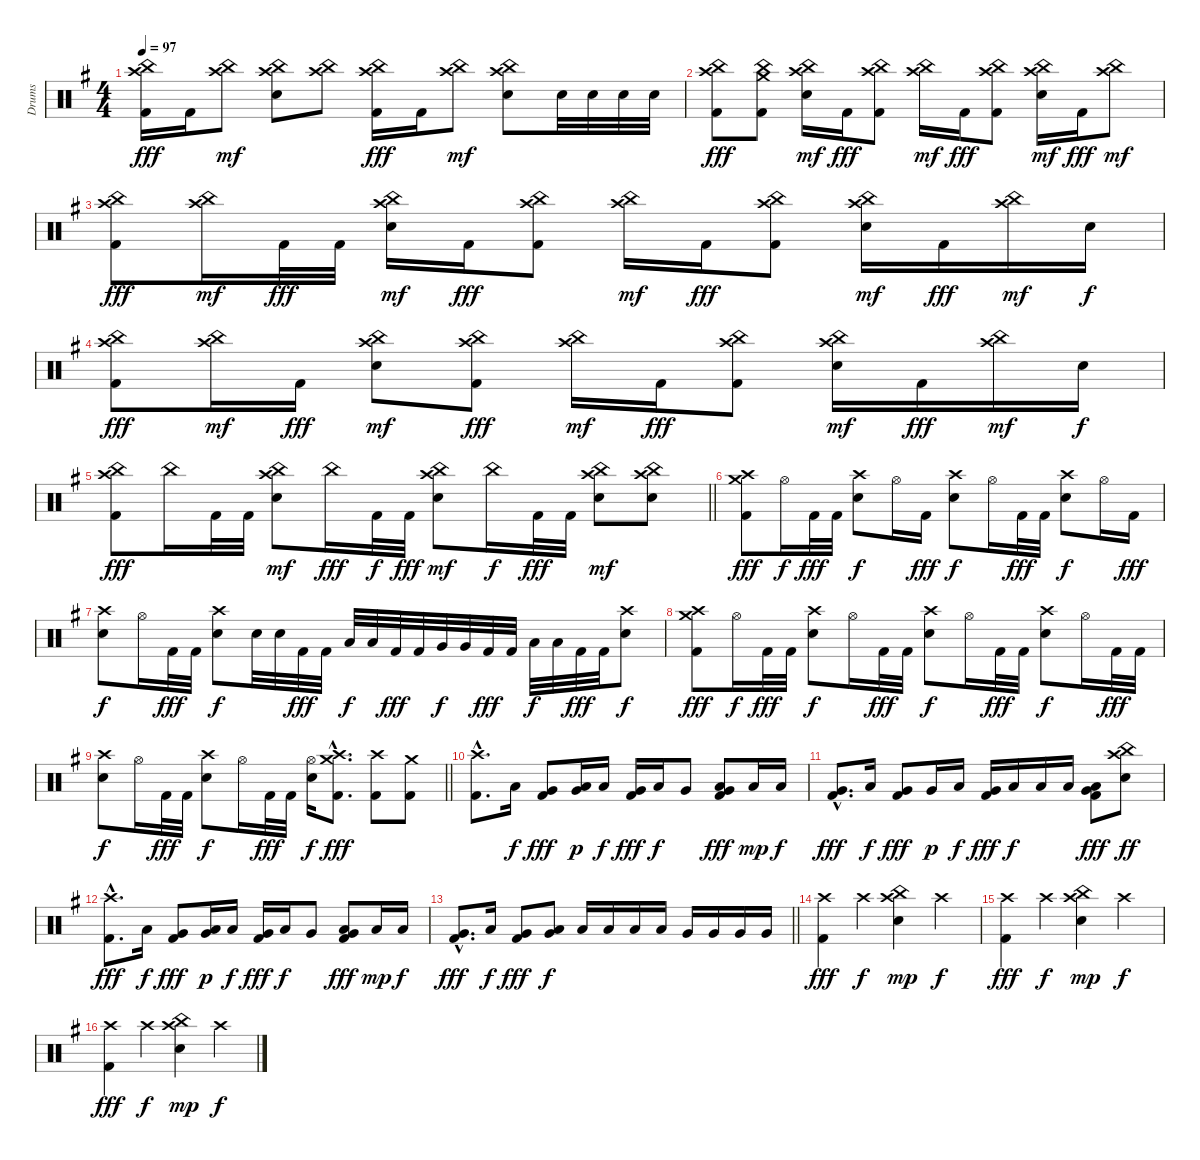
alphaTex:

\track ("Drums" "Drums") {instrument percussion}
\staff {score}
\articulation defaults
\ts (4 4)
\tempo 97
\clef neutral
\ks eminor
("Crash high (hit)" "China (hit)" "Kick (hit) 2").16{dy fff} "Kick (hit) 2".16 ("Crash high (hit)" "China (hit)").8{dy mf} ("Crash high (hit)" "China (hit)" "Snare (hit) 2").8 ("Crash high (hit)" "China (hit)").8 ("Crash high (hit)" "China (hit)" "Kick (hit) 2").16{dy fff} "Kick (hit) 2".16 ("Crash high (hit)" "China (hit)").8{dy mf} ("Crash high (hit)" "China (hit)" "Snare (hit) 2").8 "Snare (hit) 2".32 "Snare (hit) 2".32 "Snare (hit) 2".32 "Snare (hit) 2".32 |
("Crash high (hit)" "China (hit)" "Kick (hit) 2").8{dy fff} ("Crash medium (hit)" "China (hit)" "Kick (hit) 2").8 ("Crash high (hit)" "China (hit)" "Snare (hit) 2").16{dy mf} "Kick (hit) 2".16{dy fff} ("Crash high (hit)" "China (hit)" "Kick (hit) 2").8 ("Crash high (hit)" "China (hit)").16{dy mf} "Kick (hit) 2".16{dy fff} ("Crash high (hit)" "China (hit)" "Kick (hit) 2").8 ("Crash high (hit)" "China (hit)" "Snare (hit) 2").16{dy mf} "Kick (hit) 2".16{dy fff} ("Crash high (hit)" "China (hit)").8{dy mf} |
("Crash high (hit)" "China (hit)" "Kick (hit) 2").8{dy fff} ("Crash high (hit)" "China (hit)").16{dy mf} "Kick (hit) 2".32{dy fff} "Kick (hit) 2".32 ("Crash high (hit)" "China (hit)" "Snare (hit) 2").16{dy mf} "Kick (hit) 2".16{dy fff} ("Crash high (hit)" "China (hit)" "Kick (hit) 2").8 ("Crash high (hit)" "China (hit)").16{dy mf} "Kick (hit) 2".16{dy fff} ("Crash high (hit)" "China (hit)" "Kick (hit) 2").8 ("Crash high (hit)" "China (hit)" "Snare (hit) 2").16{dy mf} "Kick (hit) 2".16{dy fff} ("Crash high (hit)" "China (hit)").16{dy mf} "Snare (hit) 2".16{dy f} |
("Crash high (hit)" "China (hit)" "Kick (hit) 2").8{dy fff} ("Crash high (hit)" "China (hit)").16{dy mf} "Kick (hit) 2".16{dy fff} ("Crash high (hit)" "China (hit)" "Snare (hit) 2").8{dy mf} ("Crash high (hit)" "China (hit)" "Kick (hit) 2").8{dy fff} ("Crash high (hit)" "China (hit)").16{dy mf} "Kick (hit) 2".16{dy fff} ("Crash high (hit)" "China (hit)" "Kick (hit) 2").8 ("Crash high (hit)" "China (hit)" "Snare (hit) 2").16{dy mf} "Kick (hit) 2".16{dy fff} ("Crash high (hit)" "China (hit)").16{dy mf} "Snare (hit) 2".16{dy f} |
\barLineRight lightlight
("Crash high (hit)" "China (hit)" "Kick (hit) 2").8{dy fff} "China (hit)".16 "Kick (hit) 2".32 "Kick (hit) 2".32 ("Crash high (hit)" "China (hit)" "Snare (hit) 2").8{dy mf} "China (hit)".16{dy fff} "Kick (hit) 2".32{dy f} "Kick (hit) 2".32{dy fff} ("Crash high (hit)" "China (hit)" "Snare (hit) 2").8{dy mf} "China (hit)".16{dy f} "Kick (hit) 2".32{dy fff} "Kick (hit) 2".32 ("Crash high (hit)" "China (hit)" "Snare (hit) 2").8{dy mf} ("Crash high (hit)" "China (hit)" "Snare (hit) 2").8 |
("Crash high (hit)" "Crash medium (hit)" "Kick (hit) 2").8{dy fff} "Hi-Hat (open)".16{dy f} "Kick (hit) 2".32{dy fff} "Kick (hit) 2".32 ("Crash high (hit)" "Snare (hit) 2").8{dy f} "Hi-Hat (open)".16 "Kick (hit) 2".16{dy fff} ("Crash high (hit)" "Snare (hit) 2").8{dy f} "Hi-Hat (open)".16 "Kick (hit) 2".32{dy fff} "Kick (hit) 2".32 ("Crash high (hit)" "Snare (hit) 2").8{dy f} "Hi-Hat (open)".16 "Kick (hit) 2".16{dy fff} |
("Crash high (hit)" "Snare (hit) 2").8{dy f} "Hi-Hat (open)".16 "Kick (hit) 2".32{dy fff} "Kick (hit) 2".32 ("Crash high (hit)" "Snare (hit) 2").8{dy f} "Snare (hit) 2".32 "Snare (hit) 2".32 "Kick (hit) 2".32{dy fff} "Kick (hit) 2".32 "Low Tom (hit)".32{dy f} "Low Tom (hit)".32 "Kick (hit) 2".32{dy fff} "Kick (hit) 2".32 "Very Low Tom (hit)".32{dy f} "Very Low Tom (hit)".32 "Kick (hit) 2".32{dy fff} "Kick (hit) 2".32 "Low Floor Tom (hit)".32{dy f} "Low Floor Tom (hit)".32 "Kick (hit) 2".32{dy fff} "Kick (hit) 2".32 ("Crash high (hit)" "Snare (hit) 2").8{dy f} |
("Crash high (hit)" "Crash medium (hit)" "Kick (hit) 2").8{dy fff} "Hi-Hat (open)".16{dy f} "Kick (hit) 2".32{dy fff} "Kick (hit) 2".32 ("Crash high (hit)" "Snare (hit) 2").8{dy f} "Hi-Hat (open)".16 "Kick (hit) 2".32{dy fff} "Kick (hit) 2".32 ("Crash high (hit)" "Snare (hit) 2").8{dy f} "Hi-Hat (open)".16 "Kick (hit) 2".32{dy fff} "Kick (hit) 2".32 ("Crash high (hit)" "Snare (hit) 2").8{dy f} "Hi-Hat (open)".16 "Kick (hit) 2".32{dy fff} "Kick (hit) 2".32 |
\barLineRight lightlight
("Crash high (hit)" "Snare (hit) 2").8{dy f} "Hi-Hat (open)".16 "Kick (hit) 2".32{dy fff} "Kick (hit) 2".32 ("Crash high (hit)" "Snare (hit) 2").8{dy f} "Hi-Hat (open)".16 "Kick (hit) 2".32{dy fff} "Kick (hit) 2".32 ("Hi-Hat (open)" "Snare (hit) 2").16{dy f} ("Crash high (hit)"{hac} "Crash medium (hit)"{hac} "Kick (hit) 2"{hac}).8{d dy fff} ("Crash high (hit)" "Kick (hit) 2").8 ("Crash medium (hit)" "Kick (hit) 2").8 |
("Crash high (hit)"{hac} "Kick (hit) 2"{hac}).8{d} "Low Tom (hit)".16{dy f} ("Very Low Tom (hit)" "Kick (hit) 2").8{dy fff} ("Low Tom (hit)" "Very Low Tom (hit)").16{dy p} "Low Tom (hit)".16{dy f} ("Very Low Tom (hit)" "Kick (hit) 2").16{dy fff} "Low Tom (hit)".16{dy f} "Very Low Tom (hit)".8 ("Low Tom (hit)" "Very Low Tom (hit)" "Kick (hit) 2").8{dy fff} "Low Tom (hit)".16{dy mp} "Low Tom (hit)".16{dy f} |
("Very Low Tom (hit)"{hac} "Kick (hit) 2"{hac}).8{d dy fff} "Low Tom (hit)".16{dy f} ("Very Low Tom (hit)" "Kick (hit) 2").8{dy fff} "Very Low Tom (hit)".16{dy p} "Low Tom (hit)".16{dy f} ("Very Low Tom (hit)" "Kick (hit) 2").16{dy fff} "Low Tom (hit)".16{dy f} "Low Tom (hit)".16 "Low Tom (hit)".16 ("Low Tom (hit)" "Very Low Tom (hit)" "Kick (hit) 2").8{dy fff} ("Crash high (hit)" "China (hit)" "Snare (hit) 2").8{dy ff} |
("Crash high (hit)"{hac} "Kick (hit) 2"{hac}).8{d dy fff} "Low Tom (hit)".16{dy f} ("Very Low Tom (hit)" "Kick (hit) 2").8{dy fff} ("Low Tom (hit)" "Very Low Tom (hit)").16{dy p} "Low Tom (hit)".16{dy f} ("Very Low Tom (hit)" "Kick (hit) 2").16{dy fff} "Low Tom (hit)".16{dy f} "Very Low Tom (hit)".8 ("Low Tom (hit)" "Very Low Tom (hit)" "Kick (hit) 2").8{dy fff} "Low Tom (hit)".16{dy mp} "Low Tom (hit)".16{dy f} |
\barLineRight lightlight
("Very Low Tom (hit)"{hac} "Kick (hit) 2"{hac}).8{d dy fff} "Low Tom (hit)".16{dy f} ("Very Low Tom (hit)" "Kick (hit) 2").8{dy fff} ("Low Tom (hit)" "Very Low Tom (hit)").8{dy f} "Low Tom (hit)".16 "Low Tom (hit)".16 "Low Tom (hit)".16 "Low Tom (hit)".16 "Very Low Tom (hit)".16 "Very Low Tom (hit)".16 "Very Low Tom (hit)".16 "Very Low Tom (hit)".16 |
("Crash high (hit)" "Kick (hit) 2").4{dy fff} "Crash high (hit)".4{dy f} ("Crash high (hit)" "China (hit)" "Snare (hit) 2").4{dy mp} "Crash high (hit)".4{dy f} |
("Crash high (hit)" "Kick (hit) 2").4{dy fff} "Crash high (hit)".4{dy f} ("Crash high (hit)" "China (hit)" "Snare (hit) 2").4{dy mp} "Crash high (hit)".4{dy f} |
("Crash high (hit)" "Kick (hit) 2").4{dy fff} "Crash high (hit)".4{dy f} ("Crash high (hit)" "China (hit)" "Snare (hit) 2").4{dy mp} "Crash high (hit)".4{dy f}
